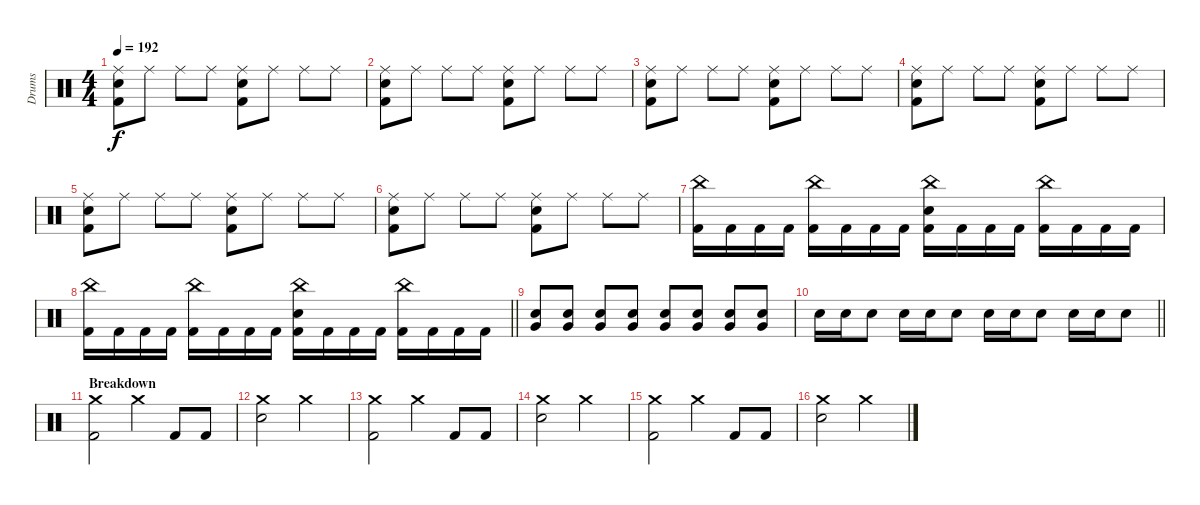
\track ("Drums" "Drums") {instrument percussion}
\staff {score}
\articulation defaults
\ts (4 4)
\tempo 192
\clef neutral
\ks c
("Ride (middle)" "Electric Snare (hit)" "Kick (hit) 2").8{dy f} "Ride (middle)".8 "Ride (middle)".8 "Ride (middle)".8 ("Ride (middle)" "Electric Snare (hit)" "Kick (hit) 2").8 "Ride (middle)".8 "Ride (middle)".8 "Ride (middle)".8 |
("Ride (middle)" "Electric Snare (hit)" "Kick (hit) 2").8 "Ride (middle)".8 "Ride (middle)".8 "Ride (middle)".8 ("Ride (middle)" "Electric Snare (hit)" "Kick (hit) 2").8 "Ride (middle)".8 "Ride (middle)".8 "Ride (middle)".8 |
("Ride (middle)" "Electric Snare (hit)" "Kick (hit) 2").8 "Ride (middle)".8 "Ride (middle)".8 "Ride (middle)".8 ("Ride (middle)" "Electric Snare (hit)" "Kick (hit) 2").8 "Ride (middle)".8 "Ride (middle)".8 "Ride (middle)".8 |
("Ride (middle)" "Electric Snare (hit)" "Kick (hit) 2").8 "Ride (middle)".8 "Ride (middle)".8 "Ride (middle)".8 ("Ride (middle)" "Electric Snare (hit)" "Kick (hit) 2").8 "Ride (middle)".8 "Ride (middle)".8 "Ride (middle)".8 |
("Ride (middle)" "Electric Snare (hit)" "Kick (hit) 2").8 "Ride (middle)".8 "Ride (middle)".8 "Ride (middle)".8 ("Ride (middle)" "Electric Snare (hit)" "Kick (hit) 2").8 "Ride (middle)".8 "Ride (middle)".8 "Ride (middle)".8 |
("Ride (middle)" "Electric Snare (hit)" "Kick (hit) 2").8 "Ride (middle)".8 "Ride (middle)".8 "Ride (middle)".8 ("Ride (middle)" "Electric Snare (hit)" "Kick (hit) 2").8 "Ride (middle)".8 "Ride (middle)".8 "Ride (middle)".8 |
("China (hit)" "Kick (hit) 2").16 "Kick (hit) 2".16 "Kick (hit) 2".16 "Kick (hit) 2".16 ("China (hit)" "Kick (hit) 2").16 "Kick (hit) 2".16 "Kick (hit) 2".16 "Kick (hit) 2".16 ("China (hit)" "Electric Snare (hit)" "Kick (hit) 2").16 "Kick (hit) 2".16 "Kick (hit) 2".16 "Kick (hit) 2".16 ("China (hit)" "Kick (hit) 2").16 "Kick (hit) 2".16 "Kick (hit) 2".16 "Kick (hit) 2".16 |
\barLineRight lightlight
("China (hit)" "Kick (hit) 2").16 "Kick (hit) 2".16 "Kick (hit) 2".16 "Kick (hit) 2".16 ("China (hit)" "Kick (hit) 2").16 "Kick (hit) 2".16 "Kick (hit) 2".16 "Kick (hit) 2".16 ("China (hit)" "Electric Snare (hit)" "Kick (hit) 2").16 "Kick (hit) 2".16 "Kick (hit) 2".16 "Kick (hit) 2".16 ("China (hit)" "Kick (hit) 2").16 "Kick (hit) 2".16 "Kick (hit) 2".16 "Kick (hit) 2".16 |
("Electric Snare (hit)" "Very Low Tom (hit)").8 ("Electric Snare (hit)" "Very Low Tom (hit)").8 ("Electric Snare (hit)" "Very Low Tom (hit)").8 ("Electric Snare (hit)" "Very Low Tom (hit)").8 ("Electric Snare (hit)" "Very Low Tom (hit)").8 ("Electric Snare (hit)" "Very Low Tom (hit)").8 ("Electric Snare (hit)" "Very Low Tom (hit)").8 ("Electric Snare (hit)" "Very Low Tom (hit)").8 |
\barLineRight lightlight "Electric Snare (hit)".16 "Electric Snare (hit)".16 "Electric Snare (hit)".8 "Electric Snare (hit)".16 "Electric Snare (hit)".16 "Electric Snare (hit)".8 "Electric Snare (hit)".16 "Electric Snare (hit)".16 "Electric Snare (hit)".8 "Electric Snare (hit)".16 "Electric Snare (hit)".16 "Electric Snare (hit)".8
|
\section ("" "Breakdown")
("Crash medium (hit)" "Kick (hit) 2").2 "Crash medium (hit)".4 "Kick (hit) 2".8 "Kick (hit) 2".8 |
("Crash medium (hit)" "Electric Snare (hit)").2 "Crash medium (hit)".2 |
("Crash medium (hit)" "Kick (hit) 2").2 "Crash medium (hit)".4 "Kick (hit) 2".8 "Kick (hit) 2".8 |
("Crash medium (hit)" "Electric Snare (hit)").2 "Crash medium (hit)".2 |
("Crash medium (hit)" "Kick (hit) 2").2 "Crash medium (hit)".4 "Kick (hit) 2".8 "Kick (hit) 2".8 |
("Crash medium (hit)" "Electric Snare (hit)").2 "Crash medium (hit)".2
